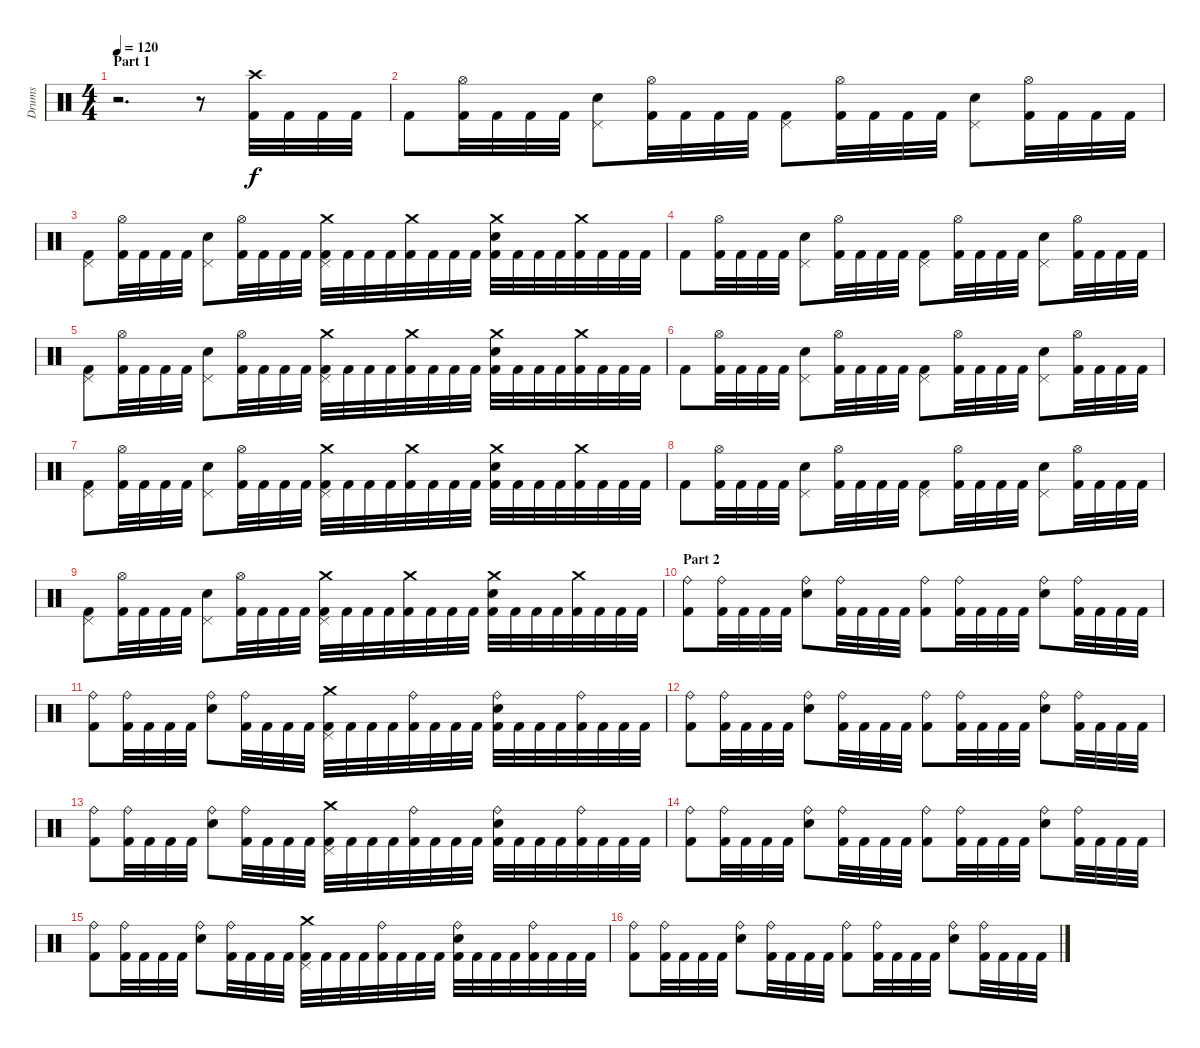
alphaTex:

\track ("Drums" "Drums") {instrument percussion}
\staff {score}
\articulation defaults
\ts (4 4)
\section ("" "Part 1")
\tempo 120
\clef neutral
\ks c
r.2{d dy f} r.8 ("Crash high (hit)" "Kick (hit) 2").32 "Kick (hit) 2".32 "Kick (hit) 2".32 "Kick (hit) 2".32 |
"Kick (hit) 2".8 ("Hi-Hat (open)" "Kick (hit) 2").32 "Kick (hit) 2".32 "Kick (hit) 2".32 "Kick (hit) 2".32 ("Pedal Hi-Hat (hit)" "Electric Snare (hit)").8 ("Hi-Hat (open)" "Kick (hit) 2").32 "Kick (hit) 2".32 "Kick (hit) 2".32 "Kick (hit) 2".32 ("Pedal Hi-Hat (hit)" "Kick (hit) 2").8 ("Hi-Hat (open)" "Kick (hit) 2").32 "Kick (hit) 2".32 "Kick (hit) 2".32 "Kick (hit) 2".32 ("Pedal Hi-Hat (hit)" "Electric Snare (hit)").8 ("Hi-Hat (open)" "Kick (hit) 2").32 "Kick (hit) 2".32 "Kick (hit) 2".32 "Kick (hit) 2".32 |
("Pedal Hi-Hat (hit)" "Kick (hit) 2").8 ("Hi-Hat (open)" "Kick (hit) 2").32 "Kick (hit) 2".32 "Kick (hit) 2".32 "Kick (hit) 2".32 ("Pedal Hi-Hat (hit)" "Electric Snare (hit)").8 ("Hi-Hat (open)" "Kick (hit) 2").32 "Kick (hit) 2".32 "Kick (hit) 2".32 "Kick (hit) 2".32 ("Crash medium (hit)" "Pedal Hi-Hat (hit)" "Kick (hit) 2").32 "Kick (hit) 2".32 "Kick (hit) 2".32 "Kick (hit) 2".32 ("Crash medium (hit)" "Kick (hit) 2").32 "Kick (hit) 2".32 "Kick (hit) 2".32 "Kick (hit) 2".32 ("Crash medium (hit)" "Electric Snare (hit)" "Kick (hit) 2").32 "Kick (hit) 2".32 "Kick (hit) 2".32 "Kick (hit) 2".32 ("Crash medium (hit)" "Kick (hit) 2").32 "Kick (hit) 2".32 "Kick (hit) 2".32 "Kick (hit) 2".32 |
"Kick (hit) 2".8 ("Hi-Hat (open)" "Kick (hit) 2").32 "Kick (hit) 2".32 "Kick (hit) 2".32 "Kick (hit) 2".32 ("Pedal Hi-Hat (hit)" "Electric Snare (hit)").8 ("Hi-Hat (open)" "Kick (hit) 2").32 "Kick (hit) 2".32 "Kick (hit) 2".32 "Kick (hit) 2".32 ("Pedal Hi-Hat (hit)" "Kick (hit) 2").8 ("Hi-Hat (open)" "Kick (hit) 2").32 "Kick (hit) 2".32 "Kick (hit) 2".32 "Kick (hit) 2".32 ("Pedal Hi-Hat (hit)" "Electric Snare (hit)").8 ("Hi-Hat (open)" "Kick (hit) 2").32 "Kick (hit) 2".32 "Kick (hit) 2".32 "Kick (hit) 2".32 |
("Pedal Hi-Hat (hit)" "Kick (hit) 2").8 ("Hi-Hat (open)" "Kick (hit) 2").32 "Kick (hit) 2".32 "Kick (hit) 2".32 "Kick (hit) 2".32 ("Pedal Hi-Hat (hit)" "Electric Snare (hit)").8 ("Hi-Hat (open)" "Kick (hit) 2").32 "Kick (hit) 2".32 "Kick (hit) 2".32 "Kick (hit) 2".32 ("Crash medium (hit)" "Pedal Hi-Hat (hit)" "Kick (hit) 2").32 "Kick (hit) 2".32 "Kick (hit) 2".32 "Kick (hit) 2".32 ("Crash medium (hit)" "Kick (hit) 2").32 "Kick (hit) 2".32 "Kick (hit) 2".32 "Kick (hit) 2".32 ("Crash medium (hit)" "Electric Snare (hit)" "Kick (hit) 2").32 "Kick (hit) 2".32 "Kick (hit) 2".32 "Kick (hit) 2".32 ("Crash medium (hit)" "Kick (hit) 2").32 "Kick (hit) 2".32 "Kick (hit) 2".32 "Kick (hit) 2".32 |
"Kick (hit) 2".8 ("Hi-Hat (open)" "Kick (hit) 2").32 "Kick (hit) 2".32 "Kick (hit) 2".32 "Kick (hit) 2".32 ("Pedal Hi-Hat (hit)" "Electric Snare (hit)").8 ("Hi-Hat (open)" "Kick (hit) 2").32 "Kick (hit) 2".32 "Kick (hit) 2".32 "Kick (hit) 2".32 ("Pedal Hi-Hat (hit)" "Kick (hit) 2").8 ("Hi-Hat (open)" "Kick (hit) 2").32 "Kick (hit) 2".32 "Kick (hit) 2".32 "Kick (hit) 2".32 ("Pedal Hi-Hat (hit)" "Electric Snare (hit)").8 ("Hi-Hat (open)" "Kick (hit) 2").32 "Kick (hit) 2".32 "Kick (hit) 2".32 "Kick (hit) 2".32 |
("Pedal Hi-Hat (hit)" "Kick (hit) 2").8 ("Hi-Hat (open)" "Kick (hit) 2").32 "Kick (hit) 2".32 "Kick (hit) 2".32 "Kick (hit) 2".32 ("Pedal Hi-Hat (hit)" "Electric Snare (hit)").8 ("Hi-Hat (open)" "Kick (hit) 2").32 "Kick (hit) 2".32 "Kick (hit) 2".32 "Kick (hit) 2".32 ("Crash medium (hit)" "Pedal Hi-Hat (hit)" "Kick (hit) 2").32 "Kick (hit) 2".32 "Kick (hit) 2".32 "Kick (hit) 2".32 ("Crash medium (hit)" "Kick (hit) 2").32 "Kick (hit) 2".32 "Kick (hit) 2".32 "Kick (hit) 2".32 ("Crash medium (hit)" "Electric Snare (hit)" "Kick (hit) 2").32 "Kick (hit) 2".32 "Kick (hit) 2".32 "Kick (hit) 2".32 ("Crash medium (hit)" "Kick (hit) 2").32 "Kick (hit) 2".32 "Kick (hit) 2".32 "Kick (hit) 2".32 |
"Kick (hit) 2".8 ("Hi-Hat (open)" "Kick (hit) 2").32 "Kick (hit) 2".32 "Kick (hit) 2".32 "Kick (hit) 2".32 ("Pedal Hi-Hat (hit)" "Electric Snare (hit)").8 ("Hi-Hat (open)" "Kick (hit) 2").32 "Kick (hit) 2".32 "Kick (hit) 2".32 "Kick (hit) 2".32 ("Pedal Hi-Hat (hit)" "Kick (hit) 2").8 ("Hi-Hat (open)" "Kick (hit) 2").32 "Kick (hit) 2".32 "Kick (hit) 2".32 "Kick (hit) 2".32 ("Pedal Hi-Hat (hit)" "Electric Snare (hit)").8 ("Hi-Hat (open)" "Kick (hit) 2").32 "Kick (hit) 2".32 "Kick (hit) 2".32 "Kick (hit) 2".32 |
("Pedal Hi-Hat (hit)" "Kick (hit) 2").8 ("Hi-Hat (open)" "Kick (hit) 2").32 "Kick (hit) 2".32 "Kick (hit) 2".32 "Kick (hit) 2".32 ("Pedal Hi-Hat (hit)" "Electric Snare (hit)").8 ("Hi-Hat (open)" "Kick (hit) 2").32 "Kick (hit) 2".32 "Kick (hit) 2".32 "Kick (hit) 2".32 ("Crash medium (hit)" "Pedal Hi-Hat (hit)" "Kick (hit) 2").32 "Kick (hit) 2".32 "Kick (hit) 2".32 "Kick (hit) 2".32 ("Crash medium (hit)" "Kick (hit) 2").32 "Kick (hit) 2".32 "Kick (hit) 2".32 "Kick (hit) 2".32 ("Crash medium (hit)" "Electric Snare (hit)" "Kick (hit) 2").32 "Kick (hit) 2".32 "Kick (hit) 2".32 "Kick (hit) 2".32 ("Crash medium (hit)" "Kick (hit) 2").32 "Kick (hit) 2".32 "Kick (hit) 2".32 "Kick (hit) 2".32 |
\section ("" "Part 2")
("Ride (bell)" "Kick (hit) 2").8 ("Ride (bell)" "Kick (hit) 2").32 "Kick (hit) 2".32 "Kick (hit) 2".32 "Kick (hit) 2".32 ("Ride (bell)" "Electric Snare (hit)").8 ("Ride (bell)" "Kick (hit) 2").32 "Kick (hit) 2".32 "Kick (hit) 2".32 "Kick (hit) 2".32 ("Ride (bell)" "Kick (hit) 2").8 ("Ride (bell)" "Kick (hit) 2").32 "Kick (hit) 2".32 "Kick (hit) 2".32 "Kick (hit) 2".32 ("Ride (bell)" "Electric Snare (hit)").8 ("Ride (bell)" "Kick (hit) 2").32 "Kick (hit) 2".32 "Kick (hit) 2".32 "Kick (hit) 2".32 |
("Ride (bell)" "Kick (hit) 2").8 ("Ride (bell)" "Kick (hit) 2").32 "Kick (hit) 2".32 "Kick (hit) 2".32 "Kick (hit) 2".32 ("Ride (bell)" "Electric Snare (hit)").8 ("Ride (bell)" "Kick (hit) 2").32 "Kick (hit) 2".32 "Kick (hit) 2".32 "Kick (hit) 2".32 ("Crash medium (hit)" "Pedal Hi-Hat (hit)" "Kick (hit) 2").32 "Kick (hit) 2".32 "Kick (hit) 2".32 "Kick (hit) 2".32 ("Ride (bell)" "Kick (hit) 2").32 "Kick (hit) 2".32 "Kick (hit) 2".32 "Kick (hit) 2".32 ("Ride (bell)" "Electric Snare (hit)" "Kick (hit) 2").32 "Kick (hit) 2".32 "Kick (hit) 2".32 "Kick (hit) 2".32 ("Ride (bell)" "Kick (hit) 2").32 "Kick (hit) 2".32 "Kick (hit) 2".32 "Kick (hit) 2".32 |
("Ride (bell)" "Kick (hit) 2").8 ("Ride (bell)" "Kick (hit) 2").32 "Kick (hit) 2".32 "Kick (hit) 2".32 "Kick (hit) 2".32 ("Ride (bell)" "Electric Snare (hit)").8 ("Ride (bell)" "Kick (hit) 2").32 "Kick (hit) 2".32 "Kick (hit) 2".32 "Kick (hit) 2".32 ("Ride (bell)" "Kick (hit) 2").8 ("Ride (bell)" "Kick (hit) 2").32 "Kick (hit) 2".32 "Kick (hit) 2".32 "Kick (hit) 2".32 ("Ride (bell)" "Electric Snare (hit)").8 ("Ride (bell)" "Kick (hit) 2").32 "Kick (hit) 2".32 "Kick (hit) 2".32 "Kick (hit) 2".32 |
("Ride (bell)" "Kick (hit) 2").8 ("Ride (bell)" "Kick (hit) 2").32 "Kick (hit) 2".32 "Kick (hit) 2".32 "Kick (hit) 2".32 ("Ride (bell)" "Electric Snare (hit)").8 ("Ride (bell)" "Kick (hit) 2").32 "Kick (hit) 2".32 "Kick (hit) 2".32 "Kick (hit) 2".32 ("Crash medium (hit)" "Pedal Hi-Hat (hit)" "Kick (hit) 2").32 "Kick (hit) 2".32 "Kick (hit) 2".32 "Kick (hit) 2".32 ("Ride (bell)" "Kick (hit) 2").32 "Kick (hit) 2".32 "Kick (hit) 2".32 "Kick (hit) 2".32 ("Ride (bell)" "Electric Snare (hit)" "Kick (hit) 2").32 "Kick (hit) 2".32 "Kick (hit) 2".32 "Kick (hit) 2".32 ("Ride (bell)" "Kick (hit) 2").32 "Kick (hit) 2".32 "Kick (hit) 2".32 "Kick (hit) 2".32 |
("Ride (bell)" "Kick (hit) 2").8 ("Ride (bell)" "Kick (hit) 2").32 "Kick (hit) 2".32 "Kick (hit) 2".32 "Kick (hit) 2".32 ("Ride (bell)" "Electric Snare (hit)").8 ("Ride (bell)" "Kick (hit) 2").32 "Kick (hit) 2".32 "Kick (hit) 2".32 "Kick (hit) 2".32 ("Ride (bell)" "Kick (hit) 2").8 ("Ride (bell)" "Kick (hit) 2").32 "Kick (hit) 2".32 "Kick (hit) 2".32 "Kick (hit) 2".32 ("Ride (bell)" "Electric Snare (hit)").8 ("Ride (bell)" "Kick (hit) 2").32 "Kick (hit) 2".32 "Kick (hit) 2".32 "Kick (hit) 2".32 |
("Ride (bell)" "Kick (hit) 2").8 ("Ride (bell)" "Kick (hit) 2").32 "Kick (hit) 2".32 "Kick (hit) 2".32 "Kick (hit) 2".32 ("Ride (bell)" "Electric Snare (hit)").8 ("Ride (bell)" "Kick (hit) 2").32 "Kick (hit) 2".32 "Kick (hit) 2".32 "Kick (hit) 2".32 ("Crash medium (hit)" "Pedal Hi-Hat (hit)" "Kick (hit) 2").32 "Kick (hit) 2".32 "Kick (hit) 2".32 "Kick (hit) 2".32 ("Ride (bell)" "Kick (hit) 2").32 "Kick (hit) 2".32 "Kick (hit) 2".32 "Kick (hit) 2".32 ("Ride (bell)" "Electric Snare (hit)" "Kick (hit) 2").32 "Kick (hit) 2".32 "Kick (hit) 2".32 "Kick (hit) 2".32 ("Ride (bell)" "Kick (hit) 2").32 "Kick (hit) 2".32 "Kick (hit) 2".32 "Kick (hit) 2".32 |
("Ride (bell)" "Kick (hit) 2").8 ("Ride (bell)" "Kick (hit) 2").32 "Kick (hit) 2".32 "Kick (hit) 2".32 "Kick (hit) 2".32 ("Ride (bell)" "Electric Snare (hit)").8 ("Ride (bell)" "Kick (hit) 2").32 "Kick (hit) 2".32 "Kick (hit) 2".32 "Kick (hit) 2".32 ("Ride (bell)" "Kick (hit) 2").8 ("Ride (bell)" "Kick (hit) 2").32 "Kick (hit) 2".32 "Kick (hit) 2".32 "Kick (hit) 2".32 ("Ride (bell)" "Electric Snare (hit)").8 ("Ride (bell)" "Kick (hit) 2").32 "Kick (hit) 2".32 "Kick (hit) 2".32 "Kick (hit) 2".32
